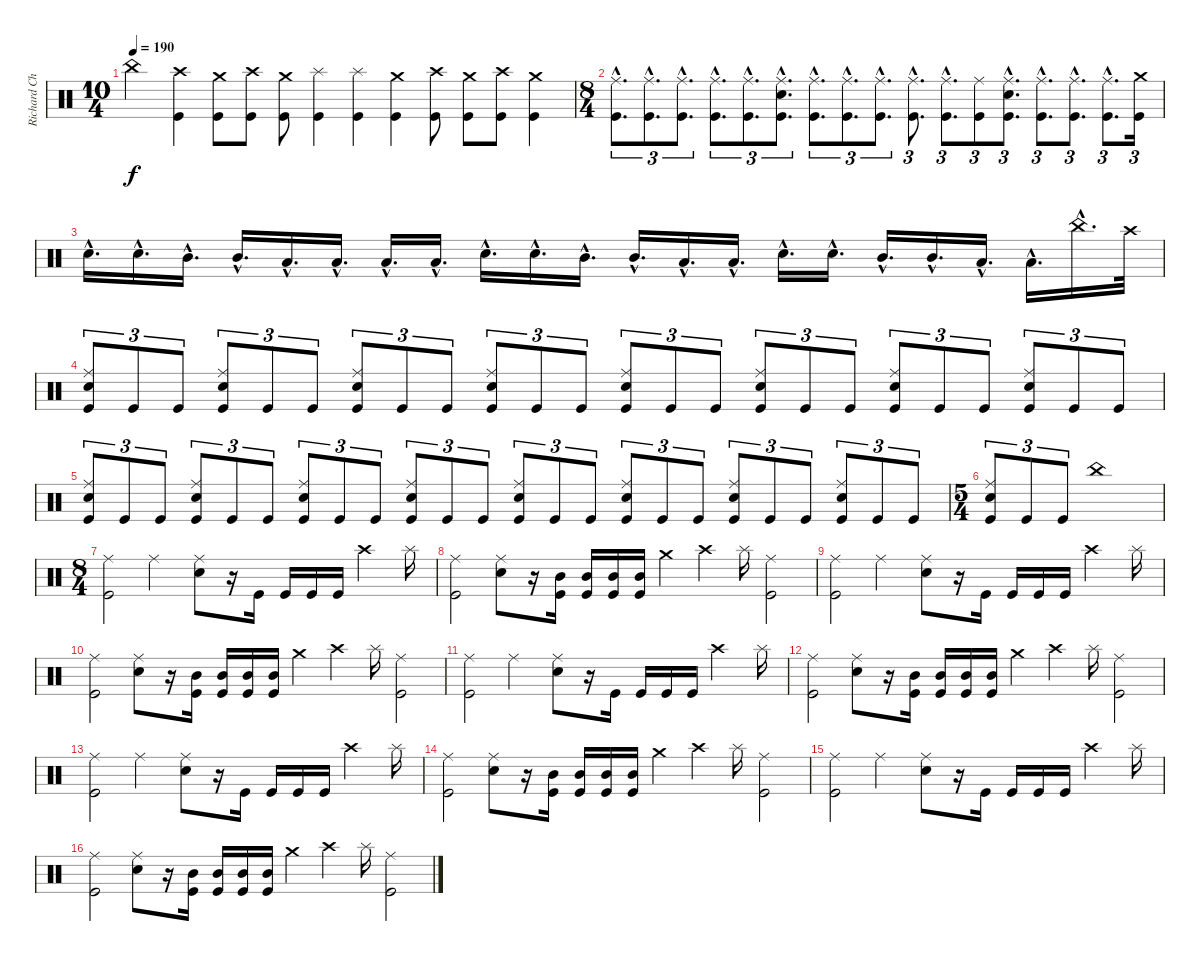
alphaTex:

\track ("Richard Christy" "Richard Ch") {instrument percussion}
\staff {score}
\articulation defaults
\ts (10 4)
\tempo 190
\clef neutral
\ks c "China (hit)".2{dy f}
("Crash high (hit)" "Kick (hit)").4 ("Crash medium (hit)" "Kick (hit)").8 ("Crash high (hit)" "Kick (hit)").8 ("Crash medium (hit)" "Kick (hit)").8 ("Splash (hit)" "Kick (hit)").4 ("Splash (hit)" "Kick (hit)").4 ("Crash medium (hit)" "Kick (hit)").4 ("Crash high (hit)" "Kick (hit)").8 ("Crash medium (hit)" "Kick (hit)").8 ("Crash high (hit)" "Kick (hit)").8 ("Crash medium (hit)" "Kick (hit)").4 |
\ts (8 4)
("Ride (middle)"{hac} "Kick (hit)"{hac}).8{d tu (3 2)} ("Ride (middle)"{hac} "Kick (hit)"{hac}).8{d tu (3 2)} ("Ride (middle)"{hac} "Kick (hit)"{hac}).8{d tu (3 2)} ("Ride (middle)"{hac} "Kick (hit)"{hac}).8{d tu (3 2)} ("Ride (middle)"{hac} "Kick (hit)"{hac}).8{d tu (3 2)} ("Ride (middle)"{hac} "Electric Snare (hit)"{hac} "Kick (hit)"{hac}).8{d tu (3 2)} ("Ride (middle)"{hac} "Kick (hit)"{hac}).8{d tu (3 2)} ("Ride (middle)"{hac} "Kick (hit)"{hac}).8{d tu (3 2)} ("Ride (middle)"{hac} "Kick (hit)"{hac}).8{d tu (3 2)} ("Ride (middle)"{hac} "Kick (hit)"{hac}).8{d tu (3 2)} ("Ride (middle)"{hac} "Kick (hit)"{hac}).8{d tu (3 2)} ("Ride (middle)" "Kick (hit)").8{tu (3 2)} ("Ride (middle)"{hac} "Electric Snare (hit)"{hac} "Kick (hit)"{hac}).8{d tu (3 2)} ("Ride (middle)"{hac} "Kick (hit)"{hac}).8{d tu (3 2)} ("Ride (middle)"{hac} "Kick (hit)"{hac}).8{d tu (3 2)} ("Ride (middle)"{hac} "Kick (hit)"{hac}).8{d tu (3 2)} ("Crash medium (hit)" "Kick (hit)").16{tu (3 2)} |
"Electric Snare (hit)"{hac}.16{d} "Electric Snare (hit)"{hac}.16{d} "Mid Tom (hit)"{hac}.16{d} "Mid Tom (hit)"{hac}.16{d} "Low Tom (hit)"{hac}.16{d} "Low Tom (hit)"{hac}.16{d} "Low Floor Tom (hit)"{hac}.16{d} "Low Floor Tom (hit)"{hac}.16{d} "Electric Snare (hit)"{hac}.16{d} "Electric Snare (hit)"{hac}.16{d} "Mid Tom (hit)"{hac}.16{d} "Mid Tom (hit)"{hac}.16{d} "Low Tom (hit)"{hac}.16{d} "Low Tom (hit)"{hac}.16{d} "Electric Snare (hit)"{hac}.16{d} "Electric Snare (hit)"{hac}.16{d} "Mid Tom (hit)"{hac}.16{d} "Mid Tom (hit)"{hac}.16{d} "Low Tom (hit)"{hac}.16{d} "Low Tom (hit)"{hac}.16{d} "China (hit)"{hac}.16{d} "Crash high (hit)".32 |
("Ride (middle)" "Electric Snare (hit)" "Kick (hit)").8{tu (3 2)} "Kick (hit)".8{tu (3 2)} "Kick (hit)".8{tu (3 2)} ("Ride (middle)" "Electric Snare (hit)" "Kick (hit)").8{tu (3 2)} "Kick (hit)".8{tu (3 2)} "Kick (hit)".8{tu (3 2)} ("Ride (middle)" "Electric Snare (hit)" "Kick (hit)").8{tu (3 2)} "Kick (hit)".8{tu (3 2)} "Kick (hit)".8{tu (3 2)} ("Ride (middle)" "Electric Snare (hit)" "Kick (hit)").8{tu (3 2)} "Kick (hit)".8{tu (3 2)} "Kick (hit)".8{tu (3 2)} ("Ride (middle)" "Electric Snare (hit)" "Kick (hit)").8{tu (3 2)} "Kick (hit)".8{tu (3 2)} "Kick (hit)".8{tu (3 2)} ("Ride (middle)" "Electric Snare (hit)" "Kick (hit)").8{tu (3 2)} "Kick (hit)".8{tu (3 2)} "Kick (hit)".8{tu (3 2)} ("Ride (middle)" "Electric Snare (hit)" "Kick (hit)").8{tu (3 2)} "Kick (hit)".8{tu (3 2)} "Kick (hit)".8{tu (3 2)} ("Ride (middle)" "Electric Snare (hit)" "Kick (hit)").8{tu (3 2)} "Kick (hit)".8{tu (3 2)} "Kick (hit)".8{tu (3 2)} |
("Ride (middle)" "Electric Snare (hit)" "Kick (hit)").8{tu (3 2)} "Kick (hit)".8{tu (3 2)} "Kick (hit)".8{tu (3 2)} ("Ride (middle)" "Electric Snare (hit)" "Kick (hit)").8{tu (3 2)} "Kick (hit)".8{tu (3 2)} "Kick (hit)".8{tu (3 2)} ("Ride (middle)" "Electric Snare (hit)" "Kick (hit)").8{tu (3 2)} "Kick (hit)".8{tu (3 2)} "Kick (hit)".8{tu (3 2)} ("Ride (middle)" "Electric Snare (hit)" "Kick (hit)").8{tu (3 2)} "Kick (hit)".8{tu (3 2)} "Kick (hit)".8{tu (3 2)} ("Ride (middle)" "Electric Snare (hit)" "Kick (hit)").8{tu (3 2)} "Kick (hit)".8{tu (3 2)} "Kick (hit)".8{tu (3 2)} ("Ride (middle)" "Electric Snare (hit)" "Kick (hit)").8{tu (3 2)} "Kick (hit)".8{tu (3 2)} "Kick (hit)".8{tu (3 2)} ("Ride (middle)" "Electric Snare (hit)" "Kick (hit)").8{tu (3 2)} "Kick (hit)".8{tu (3 2)} "Kick (hit)".8{tu (3 2)} ("Ride (middle)" "Electric Snare (hit)" "Kick (hit)").8{tu (3 2)} "Kick (hit)".8{tu (3 2)} "Kick (hit)".8{tu (3 2)} |
\ts (5 4)
("Ride (middle)" "Electric Snare (hit)" "Kick (hit)").8{tu (3 2)} "Kick (hit)".8{tu (3 2)} "Kick (hit)".8{tu (3 2)} "China (hit)".1 |
\ts (8 4)
("Ride (middle)" "Kick (hit)").2 "Ride (middle)".2 ("Ride (middle)" "Electric Snare (hit)").8 r.16 "Kick (hit)".16 "Kick (hit)".16 "Kick (hit)".16 "Kick (hit)".16 "Crash high (hit)".2 "Splash (hit)".16 |
("Ride (middle)" "Kick (hit)").2 ("Ride (middle)" "Electric Snare (hit)").8 r.16 ("Mid Tom (hit)" "Kick (hit)").16 ("Mid Tom (hit)" "Kick (hit)").16 ("Mid Tom (hit)" "Kick (hit)").16 ("Mid Tom (hit)" "Kick (hit)").16 "Crash medium (hit)".4 "Crash high (hit)".4 "Splash (hit)".16 ("Ride (middle)" "Kick (hit)").2 |
("Ride (middle)" "Kick (hit)").2 "Ride (middle)".2 ("Ride (middle)" "Electric Snare (hit)").8 r.16 "Kick (hit)".16 "Kick (hit)".16 "Kick (hit)".16 "Kick (hit)".16 "Crash high (hit)".2 "Splash (hit)".16 |
("Ride (middle)" "Kick (hit)").2 ("Ride (middle)" "Electric Snare (hit)").8 r.16 ("Mid Tom (hit)" "Kick (hit)").16 ("Mid Tom (hit)" "Kick (hit)").16 ("Mid Tom (hit)" "Kick (hit)").16 ("Mid Tom (hit)" "Kick (hit)").16 "Crash medium (hit)".4 "Crash high (hit)".4 "Splash (hit)".16 ("Ride (middle)" "Kick (hit)").2 |
("Ride (middle)" "Kick (hit)").2 "Ride (middle)".2 ("Ride (middle)" "Electric Snare (hit)").8 r.16 "Kick (hit)".16 "Kick (hit)".16 "Kick (hit)".16 "Kick (hit)".16 "Crash high (hit)".2 "Splash (hit)".16 |
("Ride (middle)" "Kick (hit)").2 ("Ride (middle)" "Electric Snare (hit)").8 r.16 ("Mid Tom (hit)" "Kick (hit)").16 ("Mid Tom (hit)" "Kick (hit)").16 ("Mid Tom (hit)" "Kick (hit)").16 ("Mid Tom (hit)" "Kick (hit)").16 "Crash medium (hit)".4 "Crash high (hit)".4 "Splash (hit)".16 ("Ride (middle)" "Kick (hit)").2 |
("Ride (middle)" "Kick (hit)").2 "Ride (middle)".2 ("Ride (middle)" "Electric Snare (hit)").8 r.16 "Kick (hit)".16 "Kick (hit)".16 "Kick (hit)".16 "Kick (hit)".16 "Crash high (hit)".2 "Splash (hit)".16 |
("Ride (middle)" "Kick (hit)").2 ("Ride (middle)" "Electric Snare (hit)").8 r.16 ("Mid Tom (hit)" "Kick (hit)").16 ("Mid Tom (hit)" "Kick (hit)").16 ("Mid Tom (hit)" "Kick (hit)").16 ("Mid Tom (hit)" "Kick (hit)").16 "Crash medium (hit)".4 "Crash high (hit)".4 "Splash (hit)".16 ("Ride (middle)" "Kick (hit)").2 |
("Ride (middle)" "Kick (hit)").2 "Ride (middle)".2 ("Ride (middle)" "Electric Snare (hit)").8 r.16 "Kick (hit)".16 "Kick (hit)".16 "Kick (hit)".16 "Kick (hit)".16 "Crash high (hit)".2 "Splash (hit)".16 |
("Ride (middle)" "Kick (hit)").2 ("Ride (middle)" "Electric Snare (hit)").8 r.16 ("Mid Tom (hit)" "Kick (hit)").16 ("Mid Tom (hit)" "Kick (hit)").16 ("Mid Tom (hit)" "Kick (hit)").16 ("Mid Tom (hit)" "Kick (hit)").16 "Crash medium (hit)".4 "Crash high (hit)".4 "Splash (hit)".16 ("Ride (middle)" "Kick (hit)").2
